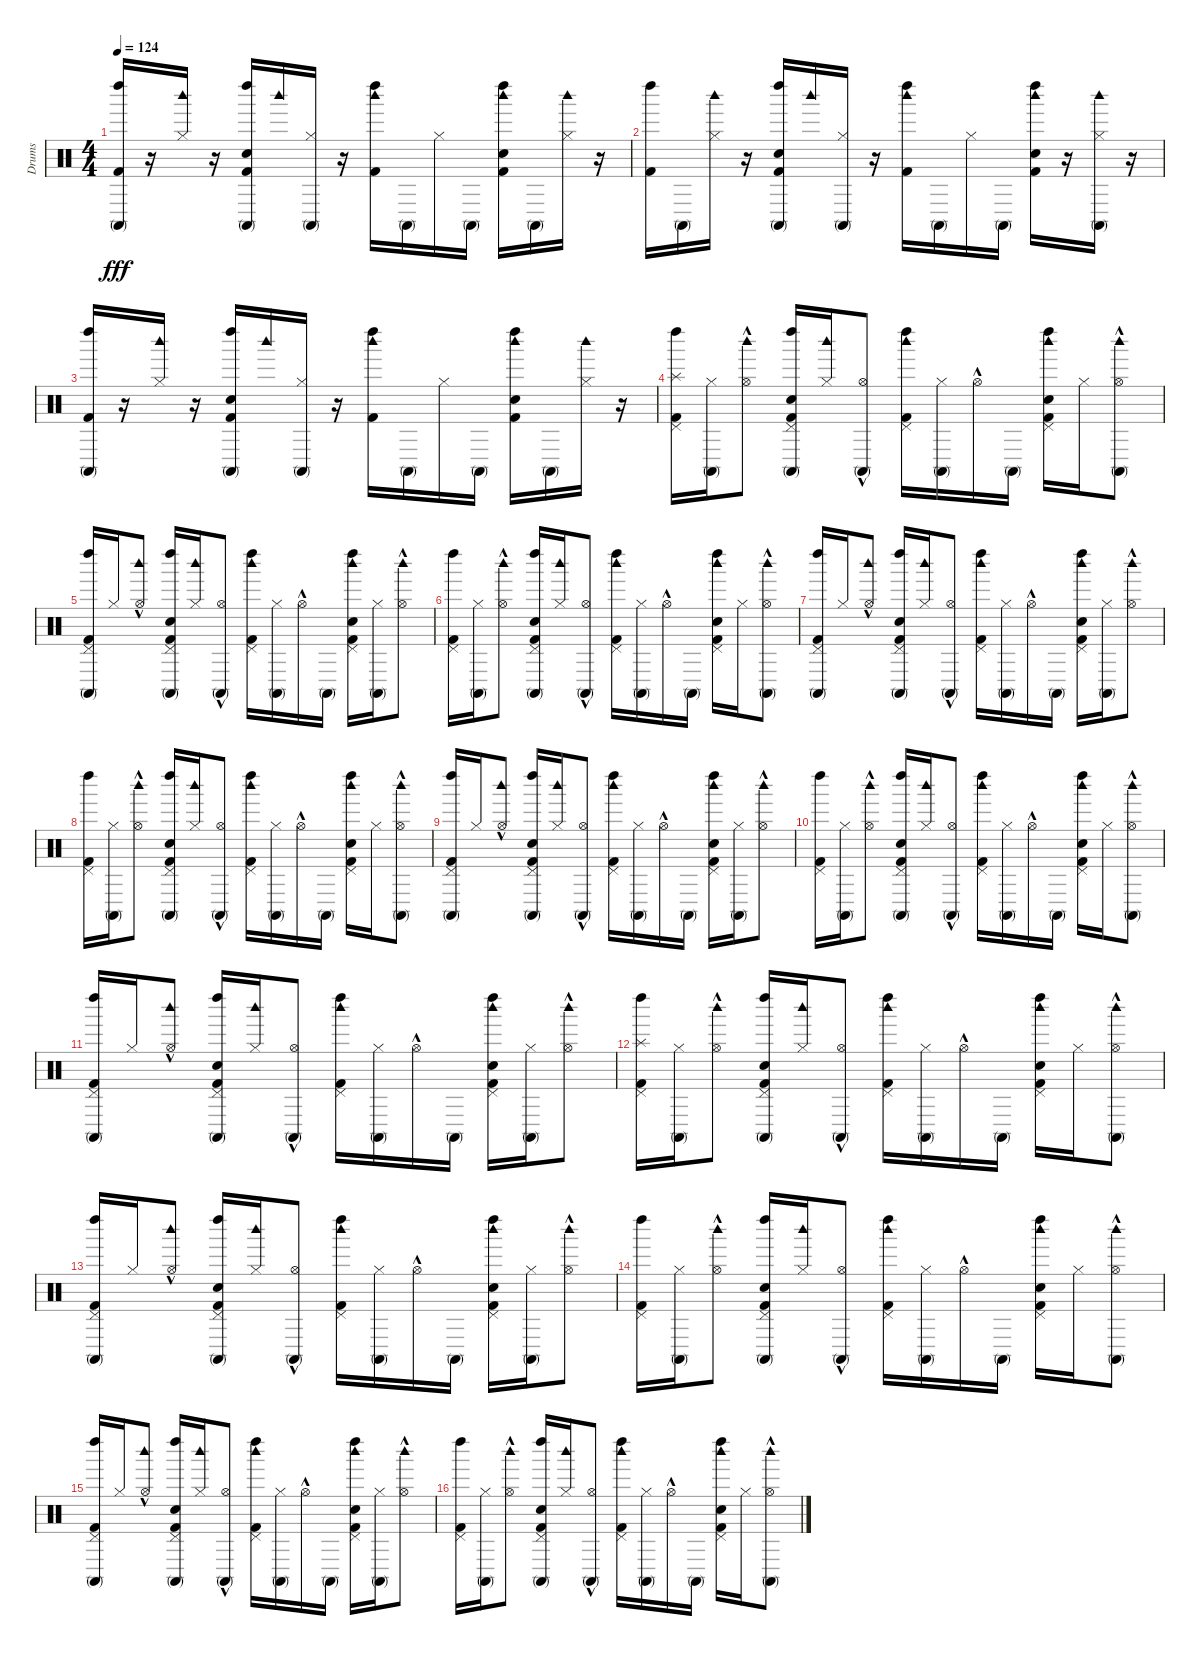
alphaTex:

\track ("Drums" "Drums") {instrument percussion}
\staff {score}
\articulation defaults
\ts (4 4)
\tempo 124
\clef neutral
\ks c
("Conga high (mute)" "Left Maraca (hit)" "Kick (hit) 2").16{dy fff} r.16 ("Woodblock high (hit)" "Hi-Hat (closed)").16 r.16 ("Hand Clap (hit)" "Conga high (mute)" "Left Maraca (hit)" "Kick (hit) 2").16 "Woodblock high (hit)".16 ("Conga high (mute)" "Hi-Hat (closed)").16 r.16 ("Woodblock high (hit)" "Left Maraca (hit)" "Kick (hit) 2").16 "Conga high (mute)".16 "Hi-Hat (closed)".16 "Conga high (mute)".16 ("Hand Clap (hit)" "Woodblock high (hit)" "Left Maraca (hit)" "Kick (hit) 2").16 "Conga high (mute)".16 ("Woodblock high (hit)" "Hi-Hat (closed)").16 r.16 |
("Left Maraca (hit)" "Kick (hit) 2").16 "Conga high (mute)".16 ("Woodblock high (hit)" "Hi-Hat (closed)").16 r.16 ("Hand Clap (hit)" "Conga high (mute)" "Left Maraca (hit)" "Kick (hit) 2").16 "Woodblock high (hit)".16 ("Conga high (mute)" "Hi-Hat (closed)").16 r.16 ("Woodblock high (hit)" "Left Maraca (hit)" "Kick (hit) 2").16 "Conga high (mute)".16 "Hi-Hat (closed)".16 "Conga high (mute)".16 ("Hand Clap (hit)" "Woodblock high (hit)" "Left Maraca (hit)" "Kick (hit) 2").16 r.16 ("Conga high (mute)" "Woodblock high (hit)" "Hi-Hat (closed)").16 r.16 |
("Conga high (mute)" "Left Maraca (hit)" "Kick (hit) 2").16 r.16 ("Woodblock high (hit)" "Hi-Hat (closed)").16 r.16 ("Hand Clap (hit)" "Conga high (mute)" "Left Maraca (hit)" "Kick (hit) 2").16 "Woodblock high (hit)".16 ("Conga high (mute)" "Hi-Hat (closed)").16 r.16 ("Woodblock high (hit)" "Left Maraca (hit)" "Kick (hit) 2").16 "Conga high (mute)".16 "Hi-Hat (closed)".16 "Conga high (mute)".16 ("Hand Clap (hit)" "Woodblock high (hit)" "Left Maraca (hit)" "Kick (hit) 2").16 "Conga high (mute)".16 ("Woodblock high (hit)" "Hi-Hat (closed)").16 r.16 |
("Splash (hit)" "Pedal Hi-Hat (hit)" "Kick (hit) 2" "Left Maraca (hit)").16 ("Hi-Hat (closed)" "Conga high (mute)").16 ("Hi-Hat (open)"{hac} "Woodblock high (hit)").8 ("Electric Snare (hit)" "Pedal Hi-Hat (hit)" "Kick (hit) 2" "Conga high (mute)" "Left Maraca (hit)").16 ("Hi-Hat (closed)" "Woodblock high (hit)").16 ("Hi-Hat (open)"{hac} "Conga high (mute)").8 ("Pedal Hi-Hat (hit)" "Kick (hit) 2" "Woodblock high (hit)" "Left Maraca (hit)").16 ("Hi-Hat (closed)" "Conga high (mute)").16 "Hi-Hat (open)"{hac}.16 "Conga high (mute)".16 ("Electric Snare (hit)" "Pedal Hi-Hat (hit)" "Kick (hit) 2" "Woodblock high (hit)" "Left Maraca (hit)").16 "Hi-Hat (closed)".16 ("Hi-Hat (open)"{hac} "Conga high (mute)" "Woodblock high (hit)").8 |
("Pedal Hi-Hat (hit)" "Kick (hit) 2" "Conga high (mute)" "Left Maraca (hit)").16 "Hi-Hat (closed)".16 ("Hi-Hat (open)"{hac} "Woodblock high (hit)").8 ("Electric Snare (hit)" "Pedal Hi-Hat (hit)" "Kick (hit) 2" "Conga high (mute)" "Left Maraca (hit)").16 ("Hi-Hat (closed)" "Woodblock high (hit)").16 ("Hi-Hat (open)"{hac} "Conga high (mute)").8 ("Pedal Hi-Hat (hit)" "Kick (hit) 2" "Woodblock high (hit)" "Left Maraca (hit)").16 ("Hi-Hat (closed)" "Conga high (mute)").16 "Hi-Hat (open)"{hac}.16 "Conga high (mute)".16 ("Electric Snare (hit)" "Pedal Hi-Hat (hit)" "Kick (hit) 2" "Woodblock high (hit)" "Left Maraca (hit)").16 ("Hi-Hat (closed)" "Conga high (mute)").16 ("Hi-Hat (open)"{hac} "Woodblock high (hit)").8 |
("Pedal Hi-Hat (hit)" "Kick (hit) 2" "Left Maraca (hit)").16 ("Hi-Hat (closed)" "Conga high (mute)").16 ("Hi-Hat (open)"{hac} "Woodblock high (hit)").8 ("Electric Snare (hit)" "Pedal Hi-Hat (hit)" "Kick (hit) 2" "Conga high (mute)" "Left Maraca (hit)").16 ("Hi-Hat (closed)" "Woodblock high (hit)").16 ("Hi-Hat (open)"{hac} "Conga high (mute)").8 ("Pedal Hi-Hat (hit)" "Kick (hit) 2" "Woodblock high (hit)" "Left Maraca (hit)").16 ("Hi-Hat (closed)" "Conga high (mute)").16 "Hi-Hat (open)"{hac}.16 "Conga high (mute)".16 ("Electric Snare (hit)" "Pedal Hi-Hat (hit)" "Kick (hit) 2" "Woodblock high (hit)" "Left Maraca (hit)").16 "Hi-Hat (closed)".16 ("Hi-Hat (open)"{hac} "Conga high (mute)" "Woodblock high (hit)").8 |
("Pedal Hi-Hat (hit)" "Kick (hit) 2" "Conga high (mute)" "Left Maraca (hit)").16 "Hi-Hat (closed)".16 ("Hi-Hat (open)"{hac} "Woodblock high (hit)").8 ("Electric Snare (hit)" "Pedal Hi-Hat (hit)" "Kick (hit) 2" "Conga high (mute)" "Left Maraca (hit)").16 ("Hi-Hat (closed)" "Woodblock high (hit)").16 ("Hi-Hat (open)"{hac} "Conga high (mute)").8 ("Pedal Hi-Hat (hit)" "Kick (hit) 2" "Woodblock high (hit)" "Left Maraca (hit)").16 ("Hi-Hat (closed)" "Conga high (mute)").16 "Hi-Hat (open)"{hac}.16 "Conga high (mute)".16 ("Electric Snare (hit)" "Pedal Hi-Hat (hit)" "Kick (hit) 2" "Woodblock high (hit)" "Left Maraca (hit)").16 ("Hi-Hat (closed)" "Conga high (mute)").16 ("Hi-Hat (open)"{hac} "Woodblock high (hit)").8 |
("Pedal Hi-Hat (hit)" "Kick (hit) 2" "Left Maraca (hit)").16 ("Hi-Hat (closed)" "Conga high (mute)").16 ("Hi-Hat (open)"{hac} "Woodblock high (hit)").8 ("Electric Snare (hit)" "Pedal Hi-Hat (hit)" "Kick (hit) 2" "Conga high (mute)" "Left Maraca (hit)").16 ("Hi-Hat (closed)" "Woodblock high (hit)").16 ("Hi-Hat (open)"{hac} "Conga high (mute)").8 ("Pedal Hi-Hat (hit)" "Kick (hit) 2" "Woodblock high (hit)" "Left Maraca (hit)").16 ("Hi-Hat (closed)" "Conga high (mute)").16 "Hi-Hat (open)"{hac}.16 "Conga high (mute)".16 ("Electric Snare (hit)" "Pedal Hi-Hat (hit)" "Kick (hit) 2" "Woodblock high (hit)" "Left Maraca (hit)").16 "Hi-Hat (closed)".16 ("Hi-Hat (open)"{hac} "Conga high (mute)" "Woodblock high (hit)").8 |
("Pedal Hi-Hat (hit)" "Kick (hit) 2" "Conga high (mute)" "Left Maraca (hit)").16 "Hi-Hat (closed)".16 ("Hi-Hat (open)"{hac} "Woodblock high (hit)").8 ("Electric Snare (hit)" "Pedal Hi-Hat (hit)" "Kick (hit) 2" "Conga high (mute)" "Left Maraca (hit)").16 ("Hi-Hat (closed)" "Woodblock high (hit)").16 ("Hi-Hat (open)"{hac} "Conga high (mute)").8 ("Pedal Hi-Hat (hit)" "Kick (hit) 2" "Woodblock high (hit)" "Left Maraca (hit)").16 ("Hi-Hat (closed)" "Conga high (mute)").16 "Hi-Hat (open)"{hac}.16 "Conga high (mute)".16 ("Electric Snare (hit)" "Pedal Hi-Hat (hit)" "Kick (hit) 2" "Woodblock high (hit)" "Left Maraca (hit)").16 ("Hi-Hat (closed)" "Conga high (mute)").16 ("Hi-Hat (open)"{hac} "Woodblock high (hit)").8 |
("Pedal Hi-Hat (hit)" "Kick (hit) 2" "Left Maraca (hit)").16 ("Hi-Hat (closed)" "Conga high (mute)").16 ("Hi-Hat (open)"{hac} "Woodblock high (hit)").8 ("Electric Snare (hit)" "Pedal Hi-Hat (hit)" "Kick (hit) 2" "Conga high (mute)" "Left Maraca (hit)").16 ("Hi-Hat (closed)" "Woodblock high (hit)").16 ("Hi-Hat (open)"{hac} "Conga high (mute)").8 ("Pedal Hi-Hat (hit)" "Kick (hit) 2" "Woodblock high (hit)" "Left Maraca (hit)").16 ("Hi-Hat (closed)" "Conga high (mute)").16 "Hi-Hat (open)"{hac}.16 "Conga high (mute)".16 ("Electric Snare (hit)" "Pedal Hi-Hat (hit)" "Kick (hit) 2" "Woodblock high (hit)" "Left Maraca (hit)").16 "Hi-Hat (closed)".16 ("Hi-Hat (open)"{hac} "Conga high (mute)" "Woodblock high (hit)").8 |
("Pedal Hi-Hat (hit)" "Kick (hit) 2" "Conga high (mute)" "Left Maraca (hit)").16 "Hi-Hat (closed)".16 ("Hi-Hat (open)"{hac} "Woodblock high (hit)").8 ("Electric Snare (hit)" "Pedal Hi-Hat (hit)" "Kick (hit) 2" "Conga high (mute)" "Left Maraca (hit)").16 ("Hi-Hat (closed)" "Woodblock high (hit)").16 ("Hi-Hat (open)"{hac} "Conga high (mute)").8 ("Pedal Hi-Hat (hit)" "Kick (hit) 2" "Woodblock high (hit)" "Left Maraca (hit)").16 ("Hi-Hat (closed)" "Conga high (mute)").16 "Hi-Hat (open)"{hac}.16 "Conga high (mute)".16 ("Electric Snare (hit)" "Pedal Hi-Hat (hit)" "Kick (hit) 2" "Woodblock high (hit)" "Left Maraca (hit)").16 ("Hi-Hat (closed)" "Conga high (mute)").16 ("Hi-Hat (open)"{hac} "Woodblock high (hit)").8 |
("Splash (hit)" "Pedal Hi-Hat (hit)" "Kick (hit) 2" "Left Maraca (hit)").16 ("Hi-Hat (closed)" "Conga high (mute)").16 ("Hi-Hat (open)"{hac} "Woodblock high (hit)").8 ("Electric Snare (hit)" "Pedal Hi-Hat (hit)" "Kick (hit) 2" "Conga high (mute)" "Left Maraca (hit)").16 ("Hi-Hat (closed)" "Woodblock high (hit)").16 ("Hi-Hat (open)"{hac} "Conga high (mute)").8 ("Pedal Hi-Hat (hit)" "Kick (hit) 2" "Woodblock high (hit)" "Left Maraca (hit)").16 ("Hi-Hat (closed)" "Conga high (mute)").16 "Hi-Hat (open)"{hac}.16 "Conga high (mute)".16 ("Electric Snare (hit)" "Pedal Hi-Hat (hit)" "Kick (hit) 2" "Woodblock high (hit)" "Left Maraca (hit)").16 "Hi-Hat (closed)".16 ("Hi-Hat (open)"{hac} "Conga high (mute)" "Woodblock high (hit)").8 |
("Pedal Hi-Hat (hit)" "Kick (hit) 2" "Conga high (mute)" "Left Maraca (hit)").16 "Hi-Hat (closed)".16 ("Hi-Hat (open)"{hac} "Woodblock high (hit)").8 ("Electric Snare (hit)" "Pedal Hi-Hat (hit)" "Kick (hit) 2" "Conga high (mute)" "Left Maraca (hit)").16 ("Hi-Hat (closed)" "Woodblock high (hit)").16 ("Hi-Hat (open)"{hac} "Conga high (mute)").8 ("Pedal Hi-Hat (hit)" "Kick (hit) 2" "Woodblock high (hit)" "Left Maraca (hit)").16 ("Hi-Hat (closed)" "Conga high (mute)").16 "Hi-Hat (open)"{hac}.16 "Conga high (mute)".16 ("Electric Snare (hit)" "Pedal Hi-Hat (hit)" "Kick (hit) 2" "Woodblock high (hit)" "Left Maraca (hit)").16 ("Hi-Hat (closed)" "Conga high (mute)").16 ("Hi-Hat (open)"{hac} "Woodblock high (hit)").8 |
("Pedal Hi-Hat (hit)" "Kick (hit) 2" "Left Maraca (hit)").16 ("Hi-Hat (closed)" "Conga high (mute)").16 ("Hi-Hat (open)"{hac} "Woodblock high (hit)").8 ("Electric Snare (hit)" "Pedal Hi-Hat (hit)" "Kick (hit) 2" "Conga high (mute)" "Left Maraca (hit)").16 ("Hi-Hat (closed)" "Woodblock high (hit)").16 ("Hi-Hat (open)"{hac} "Conga high (mute)").8 ("Pedal Hi-Hat (hit)" "Kick (hit) 2" "Woodblock high (hit)" "Left Maraca (hit)").16 ("Hi-Hat (closed)" "Conga high (mute)").16 "Hi-Hat (open)"{hac}.16 "Conga high (mute)".16 ("Electric Snare (hit)" "Pedal Hi-Hat (hit)" "Kick (hit) 2" "Woodblock high (hit)" "Left Maraca (hit)").16 "Hi-Hat (closed)".16 ("Hi-Hat (open)"{hac} "Conga high (mute)" "Woodblock high (hit)").8 |
("Pedal Hi-Hat (hit)" "Kick (hit) 2" "Conga high (mute)" "Left Maraca (hit)").16 "Hi-Hat (closed)".16 ("Hi-Hat (open)"{hac} "Woodblock high (hit)").8 ("Electric Snare (hit)" "Pedal Hi-Hat (hit)" "Kick (hit) 2" "Conga high (mute)" "Left Maraca (hit)").16 ("Hi-Hat (closed)" "Woodblock high (hit)").16 ("Hi-Hat (open)"{hac} "Conga high (mute)").8 ("Pedal Hi-Hat (hit)" "Kick (hit) 2" "Woodblock high (hit)" "Left Maraca (hit)").16 ("Hi-Hat (closed)" "Conga high (mute)").16 "Hi-Hat (open)"{hac}.16 "Conga high (mute)".16 ("Electric Snare (hit)" "Pedal Hi-Hat (hit)" "Kick (hit) 2" "Woodblock high (hit)" "Left Maraca (hit)").16 ("Hi-Hat (closed)" "Conga high (mute)").16 ("Hi-Hat (open)"{hac} "Woodblock high (hit)").8 |
("Pedal Hi-Hat (hit)" "Kick (hit) 2" "Left Maraca (hit)").16 ("Hi-Hat (closed)" "Conga high (mute)").16 ("Hi-Hat (open)"{hac} "Woodblock high (hit)").8 ("Electric Snare (hit)" "Pedal Hi-Hat (hit)" "Kick (hit) 2" "Conga high (mute)" "Left Maraca (hit)").16 ("Hi-Hat (closed)" "Woodblock high (hit)").16 ("Hi-Hat (open)"{hac} "Conga high (mute)").8 ("Pedal Hi-Hat (hit)" "Kick (hit) 2" "Woodblock high (hit)" "Left Maraca (hit)").16 ("Hi-Hat (closed)" "Conga high (mute)").16 "Hi-Hat (open)"{hac}.16 "Conga high (mute)".16 ("Electric Snare (hit)" "Pedal Hi-Hat (hit)" "Kick (hit) 2" "Woodblock high (hit)" "Left Maraca (hit)").16 "Hi-Hat (closed)".16 ("Hi-Hat (open)"{hac} "Conga high (mute)" "Woodblock high (hit)").8
